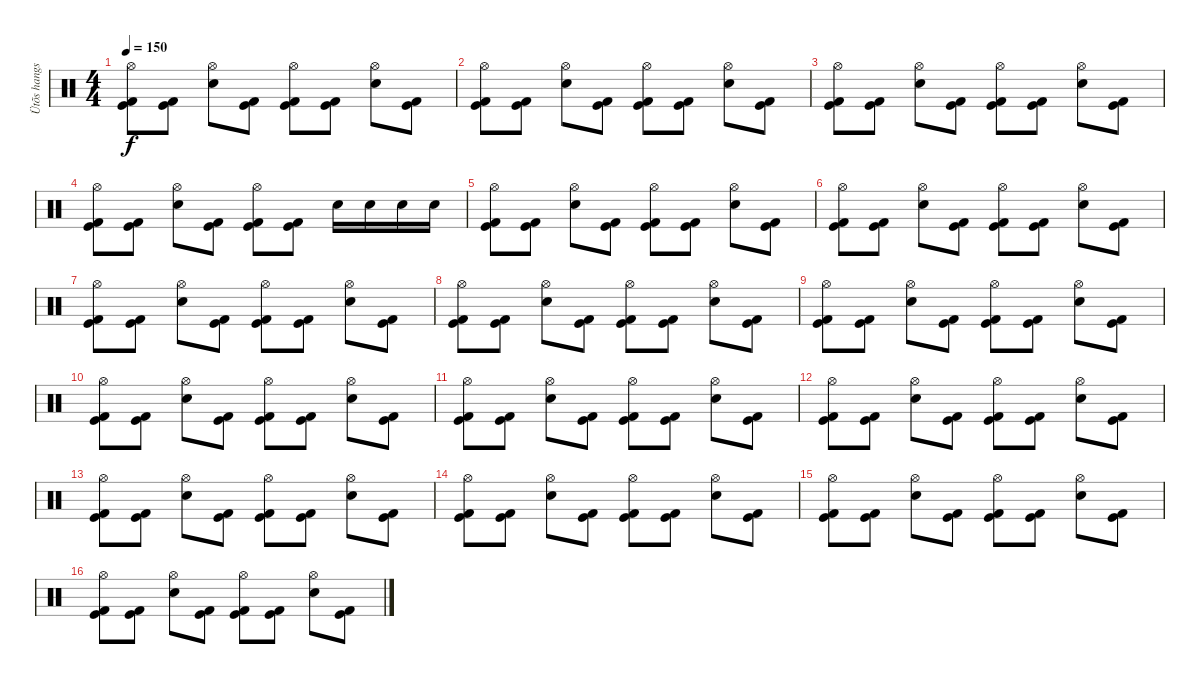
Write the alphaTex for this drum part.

\track ("Ütõs hangszer" "Ütõs hangs") {instrument percussion}
\staff {score}
\articulation defaults
\ts (4 4)
\tempo 150
\clef neutral
\ks c
("Hi-Hat (open)" "Kick (hit)" "Kick (hit) 2").8{dy f} ("Kick (hit)" "Kick (hit) 2").8 ("Hi-Hat (open)" "Electric Snare (hit)").8 ("Kick (hit)" "Kick (hit) 2").8 ("Hi-Hat (open)" "Kick (hit)" "Kick (hit) 2").8 ("Kick (hit)" "Kick (hit) 2").8 ("Hi-Hat (open)" "Electric Snare (hit)").8 ("Kick (hit)" "Kick (hit) 2").8 |
("Hi-Hat (open)" "Kick (hit)" "Kick (hit) 2").8 ("Kick (hit)" "Kick (hit) 2").8 ("Hi-Hat (open)" "Electric Snare (hit)").8 ("Kick (hit)" "Kick (hit) 2").8 ("Hi-Hat (open)" "Kick (hit)" "Kick (hit) 2").8 ("Kick (hit)" "Kick (hit) 2").8 ("Hi-Hat (open)" "Electric Snare (hit)").8 ("Kick (hit)" "Kick (hit) 2").8 |
("Hi-Hat (open)" "Kick (hit)" "Kick (hit) 2").8 ("Kick (hit)" "Kick (hit) 2").8 ("Hi-Hat (open)" "Electric Snare (hit)").8 ("Kick (hit)" "Kick (hit) 2").8 ("Hi-Hat (open)" "Kick (hit)" "Kick (hit) 2").8 ("Kick (hit)" "Kick (hit) 2").8 ("Hi-Hat (open)" "Electric Snare (hit)").8 ("Kick (hit)" "Kick (hit) 2").8 |
("Hi-Hat (open)" "Kick (hit)" "Kick (hit) 2").8 ("Kick (hit)" "Kick (hit) 2").8 ("Hi-Hat (open)" "Electric Snare (hit)").8 ("Kick (hit)" "Kick (hit) 2").8 ("Hi-Hat (open)" "Kick (hit)" "Kick (hit) 2").8 ("Kick (hit)" "Kick (hit) 2").8 "Electric Snare (hit)".16 "Electric Snare (hit)".16 "Electric Snare (hit)".16 "Electric Snare (hit)".16 |
("Hi-Hat (open)" "Kick (hit)" "Kick (hit) 2").8 ("Kick (hit)" "Kick (hit) 2").8 ("Hi-Hat (open)" "Electric Snare (hit)").8 ("Kick (hit)" "Kick (hit) 2").8 ("Hi-Hat (open)" "Kick (hit)" "Kick (hit) 2").8 ("Kick (hit)" "Kick (hit) 2").8 ("Hi-Hat (open)" "Electric Snare (hit)").8 ("Kick (hit)" "Kick (hit) 2").8 |
("Hi-Hat (open)" "Kick (hit)" "Kick (hit) 2").8 ("Kick (hit)" "Kick (hit) 2").8 ("Hi-Hat (open)" "Electric Snare (hit)").8 ("Kick (hit)" "Kick (hit) 2").8 ("Hi-Hat (open)" "Kick (hit)" "Kick (hit) 2").8 ("Kick (hit)" "Kick (hit) 2").8 ("Hi-Hat (open)" "Electric Snare (hit)").8 ("Kick (hit)" "Kick (hit) 2").8 |
("Hi-Hat (open)" "Kick (hit)" "Kick (hit) 2").8 ("Kick (hit)" "Kick (hit) 2").8 ("Hi-Hat (open)" "Electric Snare (hit)").8 ("Kick (hit)" "Kick (hit) 2").8 ("Hi-Hat (open)" "Kick (hit)" "Kick (hit) 2").8 ("Kick (hit)" "Kick (hit) 2").8 ("Hi-Hat (open)" "Electric Snare (hit)").8 ("Kick (hit)" "Kick (hit) 2").8 |
("Hi-Hat (open)" "Kick (hit)" "Kick (hit) 2").8 ("Kick (hit)" "Kick (hit) 2").8 ("Hi-Hat (open)" "Electric Snare (hit)").8 ("Kick (hit)" "Kick (hit) 2").8 ("Hi-Hat (open)" "Kick (hit)" "Kick (hit) 2").8 ("Kick (hit)" "Kick (hit) 2").8 ("Hi-Hat (open)" "Electric Snare (hit)").8 ("Kick (hit)" "Kick (hit) 2").8 |
("Hi-Hat (open)" "Kick (hit)" "Kick (hit) 2").8 ("Kick (hit)" "Kick (hit) 2").8 ("Hi-Hat (open)" "Electric Snare (hit)").8 ("Kick (hit)" "Kick (hit) 2").8 ("Hi-Hat (open)" "Kick (hit)" "Kick (hit) 2").8 ("Kick (hit)" "Kick (hit) 2").8 ("Hi-Hat (open)" "Electric Snare (hit)").8 ("Kick (hit)" "Kick (hit) 2").8 |
("Hi-Hat (open)" "Kick (hit)" "Kick (hit) 2").8 ("Kick (hit)" "Kick (hit) 2").8 ("Hi-Hat (open)" "Electric Snare (hit)").8 ("Kick (hit)" "Kick (hit) 2").8 ("Hi-Hat (open)" "Kick (hit)" "Kick (hit) 2").8 ("Kick (hit)" "Kick (hit) 2").8 ("Hi-Hat (open)" "Electric Snare (hit)").8 ("Kick (hit)" "Kick (hit) 2").8 |
("Hi-Hat (open)" "Kick (hit)" "Kick (hit) 2").8 ("Kick (hit)" "Kick (hit) 2").8 ("Hi-Hat (open)" "Electric Snare (hit)").8 ("Kick (hit)" "Kick (hit) 2").8 ("Hi-Hat (open)" "Kick (hit)" "Kick (hit) 2").8 ("Kick (hit)" "Kick (hit) 2").8 ("Hi-Hat (open)" "Electric Snare (hit)").8 ("Kick (hit)" "Kick (hit) 2").8 |
("Hi-Hat (open)" "Kick (hit)" "Kick (hit) 2").8 ("Kick (hit)" "Kick (hit) 2").8 ("Hi-Hat (open)" "Electric Snare (hit)").8 ("Kick (hit)" "Kick (hit) 2").8 ("Hi-Hat (open)" "Kick (hit)" "Kick (hit) 2").8 ("Kick (hit)" "Kick (hit) 2").8 ("Hi-Hat (open)" "Electric Snare (hit)").8 ("Kick (hit)" "Kick (hit) 2").8 |
("Hi-Hat (open)" "Kick (hit)" "Kick (hit) 2").8 ("Kick (hit)" "Kick (hit) 2").8 ("Hi-Hat (open)" "Electric Snare (hit)").8 ("Kick (hit)" "Kick (hit) 2").8 ("Hi-Hat (open)" "Kick (hit)" "Kick (hit) 2").8 ("Kick (hit)" "Kick (hit) 2").8 ("Hi-Hat (open)" "Electric Snare (hit)").8 ("Kick (hit)" "Kick (hit) 2").8 |
("Hi-Hat (open)" "Kick (hit)" "Kick (hit) 2").8 ("Kick (hit)" "Kick (hit) 2").8 ("Hi-Hat (open)" "Electric Snare (hit)").8 ("Kick (hit)" "Kick (hit) 2").8 ("Hi-Hat (open)" "Kick (hit)" "Kick (hit) 2").8 ("Kick (hit)" "Kick (hit) 2").8 ("Hi-Hat (open)" "Electric Snare (hit)").8 ("Kick (hit)" "Kick (hit) 2").8 |
("Hi-Hat (open)" "Kick (hit)" "Kick (hit) 2").8 ("Kick (hit)" "Kick (hit) 2").8 ("Hi-Hat (open)" "Electric Snare (hit)").8 ("Kick (hit)" "Kick (hit) 2").8 ("Hi-Hat (open)" "Kick (hit)" "Kick (hit) 2").8 ("Kick (hit)" "Kick (hit) 2").8 ("Hi-Hat (open)" "Electric Snare (hit)").8 ("Kick (hit)" "Kick (hit) 2").8 |
("Hi-Hat (open)" "Kick (hit)" "Kick (hit) 2").8 ("Kick (hit)" "Kick (hit) 2").8 ("Hi-Hat (open)" "Electric Snare (hit)").8 ("Kick (hit)" "Kick (hit) 2").8 ("Hi-Hat (open)" "Kick (hit)" "Kick (hit) 2").8 ("Kick (hit)" "Kick (hit) 2").8 ("Hi-Hat (open)" "Electric Snare (hit)").8 ("Kick (hit)" "Kick (hit) 2").8
